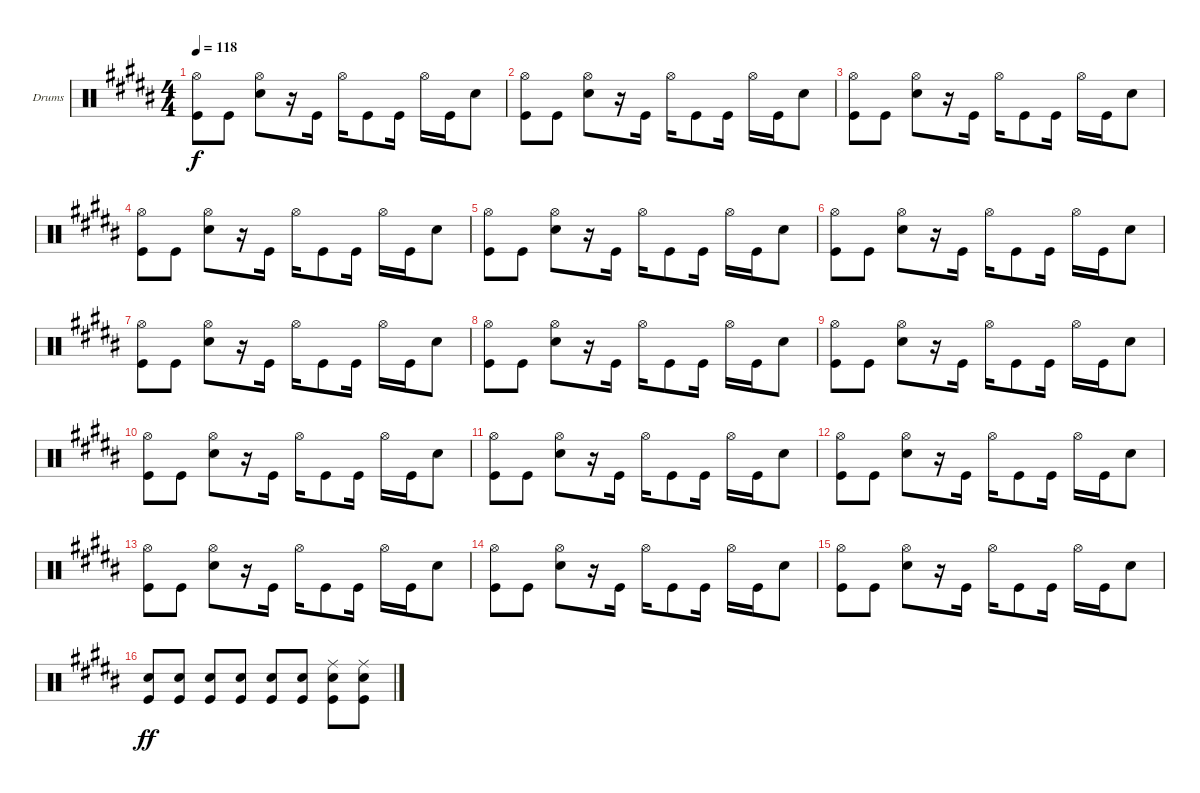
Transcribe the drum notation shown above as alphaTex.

\bracketExtendMode groupsimilarinstruments
\firstSystemTrackNameOrientation horizontal
\otherSystemsTrackNameOrientation horizontal
\track ("Fabrizio Moretti" "Drums") {instrument percussion}
\staff {score}
\articulation defaults
\ts (4 4)
\tempo 118
\clef neutral
\ks b
("Hi-Hat (open)" "Kick (hit)").8{dy f} "Kick (hit)".8 ("Hi-Hat (open)" "Snare (hit) 2").8 r.16 "Kick (hit)".16 "Hi-Hat (open)".16 "Kick (hit)".8 "Kick (hit)".16 "Hi-Hat (open)".16 "Kick (hit)".16 "Snare (hit) 2".8 |
("Hi-Hat (open)" "Kick (hit)").8 "Kick (hit)".8 ("Hi-Hat (open)" "Snare (hit) 2").8 r.16 "Kick (hit)".16 "Hi-Hat (open)".16 "Kick (hit)".8 "Kick (hit)".16 "Hi-Hat (open)".16 "Kick (hit)".16 "Snare (hit) 2".8 |
("Hi-Hat (open)" "Kick (hit)").8 "Kick (hit)".8 ("Hi-Hat (open)" "Snare (hit) 2").8 r.16 "Kick (hit)".16 "Hi-Hat (open)".16 "Kick (hit)".8 "Kick (hit)".16 "Hi-Hat (open)".16 "Kick (hit)".16 "Snare (hit) 2".8 |
("Hi-Hat (open)" "Kick (hit)").8 "Kick (hit)".8 ("Hi-Hat (open)" "Snare (hit) 2").8 r.16 "Kick (hit)".16 "Hi-Hat (open)".16 "Kick (hit)".8 "Kick (hit)".16 "Hi-Hat (open)".16 "Kick (hit)".16 "Snare (hit) 2".8 |
("Hi-Hat (open)" "Kick (hit)").8 "Kick (hit)".8 ("Hi-Hat (open)" "Snare (hit) 2").8 r.16 "Kick (hit)".16 "Hi-Hat (open)".16 "Kick (hit)".8 "Kick (hit)".16 "Hi-Hat (open)".16 "Kick (hit)".16 "Snare (hit) 2".8 |
("Hi-Hat (open)" "Kick (hit)").8 "Kick (hit)".8 ("Hi-Hat (open)" "Snare (hit) 2").8 r.16 "Kick (hit)".16 "Hi-Hat (open)".16 "Kick (hit)".8 "Kick (hit)".16 "Hi-Hat (open)".16 "Kick (hit)".16 "Snare (hit) 2".8 |
("Hi-Hat (open)" "Kick (hit)").8 "Kick (hit)".8 ("Hi-Hat (open)" "Snare (hit) 2").8 r.16 "Kick (hit)".16 "Hi-Hat (open)".16 "Kick (hit)".8 "Kick (hit)".16 "Hi-Hat (open)".16 "Kick (hit)".16 "Snare (hit) 2".8 |
("Hi-Hat (open)" "Kick (hit)").8 "Kick (hit)".8 ("Hi-Hat (open)" "Snare (hit) 2").8 r.16 "Kick (hit)".16 "Hi-Hat (open)".16 "Kick (hit)".8 "Kick (hit)".16 "Hi-Hat (open)".16 "Kick (hit)".16 "Snare (hit) 2".8 |
("Hi-Hat (open)" "Kick (hit)").8 "Kick (hit)".8 ("Hi-Hat (open)" "Snare (hit) 2").8 r.16 "Kick (hit)".16 "Hi-Hat (open)".16 "Kick (hit)".8 "Kick (hit)".16 "Hi-Hat (open)".16 "Kick (hit)".16 "Snare (hit) 2".8 |
("Hi-Hat (open)" "Kick (hit)").8 "Kick (hit)".8 ("Hi-Hat (open)" "Snare (hit) 2").8 r.16 "Kick (hit)".16 "Hi-Hat (open)".16 "Kick (hit)".8 "Kick (hit)".16 "Hi-Hat (open)".16 "Kick (hit)".16 "Snare (hit) 2".8 |
("Hi-Hat (open)" "Kick (hit)").8 "Kick (hit)".8 ("Hi-Hat (open)" "Snare (hit) 2").8 r.16 "Kick (hit)".16 "Hi-Hat (open)".16 "Kick (hit)".8 "Kick (hit)".16 "Hi-Hat (open)".16 "Kick (hit)".16 "Snare (hit) 2".8 |
("Hi-Hat (open)" "Kick (hit)").8 "Kick (hit)".8 ("Hi-Hat (open)" "Snare (hit) 2").8 r.16 "Kick (hit)".16 "Hi-Hat (open)".16 "Kick (hit)".8 "Kick (hit)".16 "Hi-Hat (open)".16 "Kick (hit)".16 "Snare (hit) 2".8 |
("Hi-Hat (open)" "Kick (hit)").8 "Kick (hit)".8 ("Hi-Hat (open)" "Snare (hit) 2").8 r.16 "Kick (hit)".16 "Hi-Hat (open)".16 "Kick (hit)".8 "Kick (hit)".16 "Hi-Hat (open)".16 "Kick (hit)".16 "Snare (hit) 2".8 |
("Hi-Hat (open)" "Kick (hit)").8 "Kick (hit)".8 ("Hi-Hat (open)" "Snare (hit) 2").8 r.16 "Kick (hit)".16 "Hi-Hat (open)".16 "Kick (hit)".8 "Kick (hit)".16 "Hi-Hat (open)".16 "Kick (hit)".16 "Snare (hit) 2".8 |
("Hi-Hat (open)" "Kick (hit)").8 "Kick (hit)".8 ("Hi-Hat (open)" "Snare (hit) 2").8 r.16 "Kick (hit)".16 "Hi-Hat (open)".16 "Kick (hit)".8 "Kick (hit)".16 "Hi-Hat (open)".16 "Kick (hit)".16 "Snare (hit) 2".8 |
("Snare (hit) 2" "Kick (hit)").8{dy ff} ("Snare (hit) 2" "Kick (hit)").8 ("Snare (hit) 2" "Kick (hit)").8 ("Snare (hit) 2" "Kick (hit)").8 ("Snare (hit) 2" "Kick (hit)").8 ("Snare (hit) 2" "Kick (hit)").8 ("Snare (hit) 2" "Kick (hit)" "Ride (middle)").8 ("Snare (hit) 2" "Kick (hit)" "Ride (middle)").8
